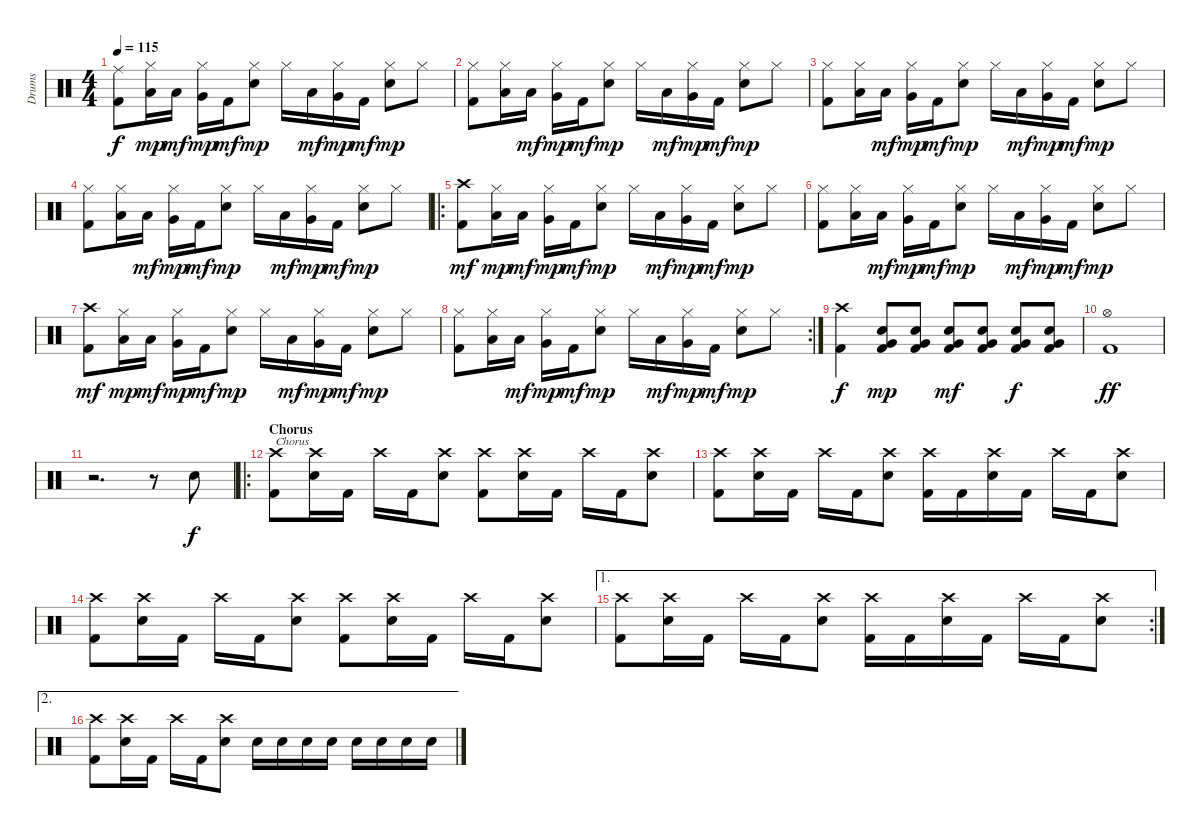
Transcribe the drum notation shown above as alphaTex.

\track ("Drums" "Drums") {instrument percussion}
\staff {score}
\articulation defaults
\ts (4 4)
\tempo 115
\clef neutral
\ks c
("Kick (hit) 2" "Ride (middle)").8{dy f} ("Low Tom (hit)" "Hi-Hat (closed)").16{dy mp} "Low Tom (hit)".16{dy mf} ("Very Low Tom (hit)" "Hi-Hat (closed)").16{dy mp} "Kick (hit) 2".16{dy mf} ("Snare (hit) 2" "Hi-Hat (closed)").8{dy mp} "Hi-Hat (closed)".16 "Low Tom (hit)".16{dy mf} ("Very Low Tom (hit)" "Hi-Hat (closed)").16{dy mp} "Kick (hit) 2".16{dy mf} ("Snare (hit) 2" "Hi-Hat (closed)").8{dy mp} "Hi-Hat (closed)".8 |
("Kick (hit) 2" "Hi-Hat (closed)").8 ("Low Tom (hit)" "Hi-Hat (closed)").16 "Low Tom (hit)".16{dy mf} ("Very Low Tom (hit)" "Hi-Hat (closed)").16{dy mp} "Kick (hit) 2".16{dy mf} ("Snare (hit) 2" "Hi-Hat (closed)").8{dy mp} "Hi-Hat (closed)".16 "Low Tom (hit)".16{dy mf} ("Very Low Tom (hit)" "Hi-Hat (closed)").16{dy mp} "Kick (hit) 2".16{dy mf} ("Snare (hit) 2" "Hi-Hat (closed)").8{dy mp} "Hi-Hat (closed)".8 |
("Kick (hit) 2" "Hi-Hat (closed)").8 ("Low Tom (hit)" "Hi-Hat (closed)").16 "Low Tom (hit)".16{dy mf} ("Very Low Tom (hit)" "Hi-Hat (closed)").16{dy mp} "Kick (hit) 2".16{dy mf} ("Snare (hit) 2" "Hi-Hat (closed)").8{dy mp} "Hi-Hat (closed)".16 "Low Tom (hit)".16{dy mf} ("Very Low Tom (hit)" "Hi-Hat (closed)").16{dy mp} "Kick (hit) 2".16{dy mf} ("Snare (hit) 2" "Hi-Hat (closed)").8{dy mp} "Hi-Hat (closed)".8 |
("Kick (hit) 2" "Hi-Hat (closed)").8 ("Low Tom (hit)" "Hi-Hat (closed)").16 "Low Tom (hit)".16{dy mf} ("Very Low Tom (hit)" "Hi-Hat (closed)").16{dy mp} "Kick (hit) 2".16{dy mf} ("Snare (hit) 2" "Hi-Hat (closed)").8{dy mp} "Hi-Hat (closed)".16 "Low Tom (hit)".16{dy mf} ("Very Low Tom (hit)" "Hi-Hat (closed)").16{dy mp} "Kick (hit) 2".16{dy mf} ("Snare (hit) 2" "Hi-Hat (closed)").8{dy mp} "Hi-Hat (closed)".8 |
\ro
("Kick (hit) 2" "Crash high (hit)").8{dy mf} ("Low Tom (hit)" "Hi-Hat (closed)").16{dy mp} "Low Tom (hit)".16{dy mf} ("Very Low Tom (hit)" "Hi-Hat (closed)").16{dy mp} "Kick (hit) 2".16{dy mf} ("Snare (hit) 2" "Hi-Hat (closed)").8{dy mp} "Hi-Hat (closed)".16 "Low Tom (hit)".16{dy mf} ("Very Low Tom (hit)" "Hi-Hat (closed)").16{dy mp} "Kick (hit) 2".16{dy mf} ("Snare (hit) 2" "Hi-Hat (closed)").8{dy mp} "Hi-Hat (closed)".8 |
("Kick (hit) 2" "Hi-Hat (closed)").8 ("Low Tom (hit)" "Hi-Hat (closed)").16 "Low Tom (hit)".16{dy mf} ("Very Low Tom (hit)" "Hi-Hat (closed)").16{dy mp} "Kick (hit) 2".16{dy mf} ("Snare (hit) 2" "Hi-Hat (closed)").8{dy mp} "Hi-Hat (closed)".16 "Low Tom (hit)".16{dy mf} ("Very Low Tom (hit)" "Hi-Hat (closed)").16{dy mp} "Kick (hit) 2".16{dy mf} ("Snare (hit) 2" "Hi-Hat (closed)").8{dy mp} "Hi-Hat (closed)".8 |
("Kick (hit) 2" "Crash high (hit)").8{dy mf} ("Low Tom (hit)" "Hi-Hat (closed)").16{dy mp} "Low Tom (hit)".16{dy mf} ("Very Low Tom (hit)" "Hi-Hat (closed)").16{dy mp} "Kick (hit) 2".16{dy mf} ("Snare (hit) 2" "Hi-Hat (closed)").8{dy mp} "Hi-Hat (closed)".16 "Low Tom (hit)".16{dy mf} ("Very Low Tom (hit)" "Hi-Hat (closed)").16{dy mp} "Kick (hit) 2".16{dy mf} ("Snare (hit) 2" "Hi-Hat (closed)").8{dy mp} "Hi-Hat (closed)".8 |
\rc 2
("Kick (hit) 2" "Hi-Hat (closed)").8 ("Low Tom (hit)" "Hi-Hat (closed)").16 "Low Tom (hit)".16{dy mf} ("Very Low Tom (hit)" "Hi-Hat (closed)").16{dy mp} "Kick (hit) 2".16{dy mf} ("Snare (hit) 2" "Hi-Hat (closed)").8{dy mp} "Hi-Hat (closed)".16 "Low Tom (hit)".16{dy mf} ("Very Low Tom (hit)" "Hi-Hat (closed)").16{dy mp} "Kick (hit) 2".16{dy mf} ("Snare (hit) 2" "Hi-Hat (closed)").8{dy mp} "Hi-Hat (closed)".8 |
("Kick (hit) 2" "Crash high (hit)").4{dy f} ("Kick (hit) 2" "Snare (hit) 2" "Very Low Tom (hit)").8{dy mp} ("Kick (hit) 2" "Snare (hit) 2" "Very Low Tom (hit)").8 ("Kick (hit) 2" "Snare (hit) 2" "Very Low Tom (hit)").8{dy mf} ("Kick (hit) 2" "Snare (hit) 2" "Very Low Tom (hit)").8 ("Kick (hit) 2" "Snare (hit) 2" "Very Low Tom (hit)").8{dy f} ("Kick (hit) 2" "Snare (hit) 2" "Very Low Tom (hit)").8 |
("Kick (hit) 2" "Hi-Hat (open)").1{dy ff} |
r.2{d} r.8 "Snare (hit) 2".8{dy f} |
\ro
\section ("" "Chorus")
("Kick (hit) 2" "Crash high (hit)").8{txt "Chorus"} ("Crash high (hit)" "Snare (hit) 2").16 "Kick (hit) 2".16 "Crash high (hit)".16 "Kick (hit) 2".16 ("Crash high (hit)" "Snare (hit) 2").8 ("Kick (hit) 2" "Crash high (hit)").8 ("Crash high (hit)" "Snare (hit) 2").16 "Kick (hit) 2".16 "Crash high (hit)".16 "Kick (hit) 2".16 ("Crash high (hit)" "Snare (hit) 2").8 |
("Kick (hit) 2" "Crash high (hit)").8 ("Crash high (hit)" "Snare (hit) 2").16 "Kick (hit) 2".16 "Crash high (hit)".16 "Kick (hit) 2".16 ("Crash high (hit)" "Snare (hit) 2").8 ("Kick (hit) 2" "Crash high (hit)").16 "Kick (hit) 2".16 ("Crash high (hit)" "Snare (hit) 2").16 "Kick (hit) 2".16 "Crash high (hit)".16 "Kick (hit) 2".16 ("Crash high (hit)" "Snare (hit) 2").8 |
("Kick (hit) 2" "Crash high (hit)").8 ("Crash high (hit)" "Snare (hit) 2").16 "Kick (hit) 2".16 "Crash high (hit)".16 "Kick (hit) 2".16 ("Crash high (hit)" "Snare (hit) 2").8 ("Kick (hit) 2" "Crash high (hit)").8 ("Crash high (hit)" "Snare (hit) 2").16 "Kick (hit) 2".16 "Crash high (hit)".16 "Kick (hit) 2".16 ("Crash high (hit)" "Snare (hit) 2").8 |
\ae 1
\rc 2
("Kick (hit) 2" "Crash high (hit)").8 ("Crash high (hit)" "Snare (hit) 2").16 "Kick (hit) 2".16 "Crash high (hit)".16 "Kick (hit) 2".16 ("Crash high (hit)" "Snare (hit) 2").8 ("Kick (hit) 2" "Crash high (hit)").16 "Kick (hit) 2".16 ("Crash high (hit)" "Snare (hit) 2").16 "Kick (hit) 2".16 "Crash high (hit)".16 "Kick (hit) 2".16 ("Crash high (hit)" "Snare (hit) 2").8 |
\ae 2
("Kick (hit) 2" "Crash high (hit)").8 ("Crash high (hit)" "Snare (hit) 2").16 "Kick (hit) 2".16 "Crash high (hit)".16 "Kick (hit) 2".16 ("Crash high (hit)" "Snare (hit) 2").8 "Snare (hit) 2".16 "Snare (hit) 2".16 "Snare (hit) 2".16 "Snare (hit) 2".16 "Snare (hit) 2".16 "Snare (hit) 2".16 "Snare (hit) 2".16 "Snare (hit) 2".16
